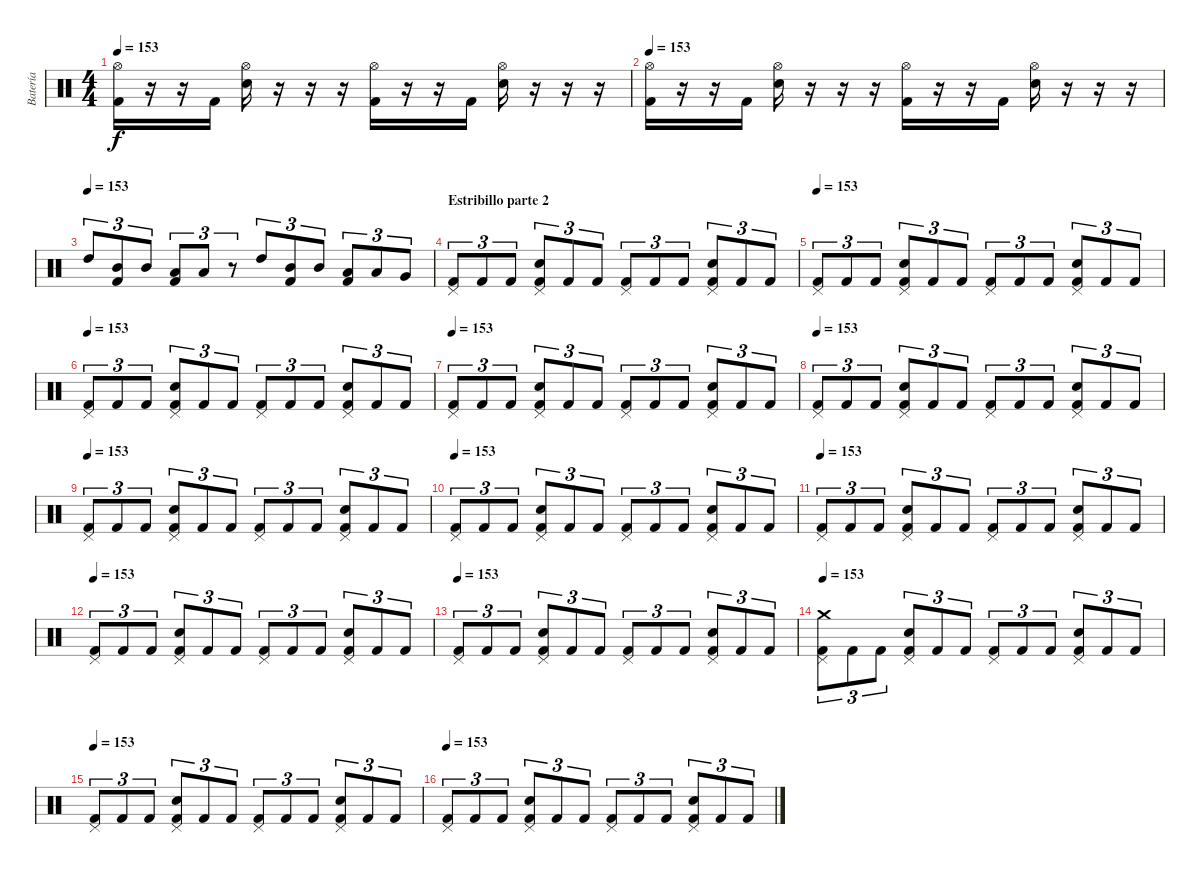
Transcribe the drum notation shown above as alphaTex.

\track ("Batería" "Batería") {instrument percussion}
\staff {score}
\articulation defaults
\ts (4 4)
\tempo 153
\clef neutral
\ks c
("Hi-Hat (open)" "Kick (hit) 2").16{dy f} r.16 r.16 "Kick (hit) 2".16 ("Hi-Hat (open)" "Snare (hit) 2").16 r.16 r.16 r.16 ("Hi-Hat (open)" "Kick (hit) 2").16 r.16 r.16 "Kick (hit) 2".16 ("Hi-Hat (open)" "Snare (hit) 2").16 r.16 r.16 r.16 |
\tempo 153
("Hi-Hat (open)" "Kick (hit) 2").16 r.16 r.16 "Kick (hit) 2".16 ("Hi-Hat (open)" "Snare (hit) 2").16 r.16 r.16 r.16 ("Hi-Hat (open)" "Kick (hit) 2").16 r.16 r.16 "Kick (hit) 2".16 ("Hi-Hat (open)" "Snare (hit) 2").16 r.16 r.16 r.16 |
\tempo (153)
"High Tom (hit)".8{tu (3 2)} ("Mid Tom (hit)" "Kick (hit) 2").8{tu (3 2)} "Mid Tom (hit)".8{tu (3 2)} ("Low Tom (hit)" "Kick (hit) 2").8{tu (3 2)} "Low Tom (hit)".8{tu (3 2)} r.8{tu (3 2)} "High Tom (hit)".8{tu (3 2)} ("Mid Tom (hit)" "Kick (hit) 2").8{tu (3 2)} "Mid Tom (hit)".8{tu (3 2)} ("Low Tom (hit)" "Kick (hit) 2").8{tu (3 2)} "Low Tom (hit)".8{tu (3 2)} "Very Low Tom (hit)".8{tu (3 2)} |
\section ("" "Estribillo parte 2")
("Pedal Hi-Hat (hit)" "Kick (hit) 2").8{tu (3 2)} "Kick (hit) 2".8{tu (3 2)} "Kick (hit) 2".8{tu (3 2)} ("Pedal Hi-Hat (hit)" "Kick (hit) 2" "Snare (hit) 2").8{tu (3 2)} "Kick (hit) 2".8{tu (3 2)} "Kick (hit) 2".8{tu (3 2)} ("Pedal Hi-Hat (hit)" "Kick (hit) 2").8{tu (3 2)} "Kick (hit) 2".8{tu (3 2)} "Kick (hit) 2".8{tu (3 2)} ("Pedal Hi-Hat (hit)" "Kick (hit) 2" "Snare (hit) 2").8{tu (3 2)} "Kick (hit) 2".8{tu (3 2)} "Kick (hit) 2".8{tu (3 2)} |
\tempo 153
("Pedal Hi-Hat (hit)" "Kick (hit) 2").8{tu (3 2)} "Kick (hit) 2".8{tu (3 2)} "Kick (hit) 2".8{tu (3 2)} ("Pedal Hi-Hat (hit)" "Kick (hit) 2" "Snare (hit) 2").8{tu (3 2)} "Kick (hit) 2".8{tu (3 2)} "Kick (hit) 2".8{tu (3 2)} ("Pedal Hi-Hat (hit)" "Kick (hit) 2").8{tu (3 2)} "Kick (hit) 2".8{tu (3 2)} "Kick (hit) 2".8{tu (3 2)} ("Pedal Hi-Hat (hit)" "Kick (hit) 2" "Snare (hit) 2").8{tu (3 2)} "Kick (hit) 2".8{tu (3 2)} "Kick (hit) 2".8{tu (3 2)} |
\tempo 153
("Pedal Hi-Hat (hit)" "Kick (hit) 2").8{tu (3 2)} "Kick (hit) 2".8{tu (3 2)} "Kick (hit) 2".8{tu (3 2)} ("Pedal Hi-Hat (hit)" "Kick (hit) 2" "Snare (hit) 2").8{tu (3 2)} "Kick (hit) 2".8{tu (3 2)} "Kick (hit) 2".8{tu (3 2)} ("Pedal Hi-Hat (hit)" "Kick (hit) 2").8{tu (3 2)} "Kick (hit) 2".8{tu (3 2)} "Kick (hit) 2".8{tu (3 2)} ("Pedal Hi-Hat (hit)" "Kick (hit) 2" "Snare (hit) 2").8{tu (3 2)} "Kick (hit) 2".8{tu (3 2)} "Kick (hit) 2".8{tu (3 2)} |
\tempo 153
("Pedal Hi-Hat (hit)" "Kick (hit) 2").8{tu (3 2)} "Kick (hit) 2".8{tu (3 2)} "Kick (hit) 2".8{tu (3 2)} ("Pedal Hi-Hat (hit)" "Kick (hit) 2" "Snare (hit) 2").8{tu (3 2)} "Kick (hit) 2".8{tu (3 2)} "Kick (hit) 2".8{tu (3 2)} ("Pedal Hi-Hat (hit)" "Kick (hit) 2").8{tu (3 2)} "Kick (hit) 2".8{tu (3 2)} "Kick (hit) 2".8{tu (3 2)} ("Pedal Hi-Hat (hit)" "Kick (hit) 2" "Snare (hit) 2").8{tu (3 2)} "Kick (hit) 2".8{tu (3 2)} "Kick (hit) 2".8{tu (3 2)} |
\tempo 153
("Pedal Hi-Hat (hit)" "Kick (hit) 2").8{tu (3 2)} "Kick (hit) 2".8{tu (3 2)} "Kick (hit) 2".8{tu (3 2)} ("Pedal Hi-Hat (hit)" "Kick (hit) 2" "Snare (hit) 2").8{tu (3 2)} "Kick (hit) 2".8{tu (3 2)} "Kick (hit) 2".8{tu (3 2)} ("Pedal Hi-Hat (hit)" "Kick (hit) 2").8{tu (3 2)} "Kick (hit) 2".8{tu (3 2)} "Kick (hit) 2".8{tu (3 2)} ("Pedal Hi-Hat (hit)" "Kick (hit) 2" "Snare (hit) 2").8{tu (3 2)} "Kick (hit) 2".8{tu (3 2)} "Kick (hit) 2".8{tu (3 2)} |
\tempo 153
("Pedal Hi-Hat (hit)" "Kick (hit) 2").8{tu (3 2)} "Kick (hit) 2".8{tu (3 2)} "Kick (hit) 2".8{tu (3 2)} ("Pedal Hi-Hat (hit)" "Kick (hit) 2" "Snare (hit) 2").8{tu (3 2)} "Kick (hit) 2".8{tu (3 2)} "Kick (hit) 2".8{tu (3 2)} ("Pedal Hi-Hat (hit)" "Kick (hit) 2").8{tu (3 2)} "Kick (hit) 2".8{tu (3 2)} "Kick (hit) 2".8{tu (3 2)} ("Pedal Hi-Hat (hit)" "Kick (hit) 2" "Snare (hit) 2").8{tu (3 2)} "Kick (hit) 2".8{tu (3 2)} "Kick (hit) 2".8{tu (3 2)} |
\tempo 153
("Pedal Hi-Hat (hit)" "Kick (hit) 2").8{tu (3 2)} "Kick (hit) 2".8{tu (3 2)} "Kick (hit) 2".8{tu (3 2)} ("Pedal Hi-Hat (hit)" "Kick (hit) 2" "Snare (hit) 2").8{tu (3 2)} "Kick (hit) 2".8{tu (3 2)} "Kick (hit) 2".8{tu (3 2)} ("Pedal Hi-Hat (hit)" "Kick (hit) 2").8{tu (3 2)} "Kick (hit) 2".8{tu (3 2)} "Kick (hit) 2".8{tu (3 2)} ("Pedal Hi-Hat (hit)" "Kick (hit) 2" "Snare (hit) 2").8{tu (3 2)} "Kick (hit) 2".8{tu (3 2)} "Kick (hit) 2".8{tu (3 2)} |
\tempo 153
("Pedal Hi-Hat (hit)" "Kick (hit) 2").8{tu (3 2)} "Kick (hit) 2".8{tu (3 2)} "Kick (hit) 2".8{tu (3 2)} ("Pedal Hi-Hat (hit)" "Kick (hit) 2" "Snare (hit) 2").8{tu (3 2)} "Kick (hit) 2".8{tu (3 2)} "Kick (hit) 2".8{tu (3 2)} ("Pedal Hi-Hat (hit)" "Kick (hit) 2").8{tu (3 2)} "Kick (hit) 2".8{tu (3 2)} "Kick (hit) 2".8{tu (3 2)} ("Pedal Hi-Hat (hit)" "Kick (hit) 2" "Snare (hit) 2").8{tu (3 2)} "Kick (hit) 2".8{tu (3 2)} "Kick (hit) 2".8{tu (3 2)} |
\tempo 153
("Pedal Hi-Hat (hit)" "Kick (hit) 2").8{tu (3 2)} "Kick (hit) 2".8{tu (3 2)} "Kick (hit) 2".8{tu (3 2)} ("Pedal Hi-Hat (hit)" "Kick (hit) 2" "Snare (hit) 2").8{tu (3 2)} "Kick (hit) 2".8{tu (3 2)} "Kick (hit) 2".8{tu (3 2)} ("Pedal Hi-Hat (hit)" "Kick (hit) 2").8{tu (3 2)} "Kick (hit) 2".8{tu (3 2)} "Kick (hit) 2".8{tu (3 2)} ("Pedal Hi-Hat (hit)" "Kick (hit) 2" "Snare (hit) 2").8{tu (3 2)} "Kick (hit) 2".8{tu (3 2)} "Kick (hit) 2".8{tu (3 2)} |
\tempo 153
("Pedal Hi-Hat (hit)" "Kick (hit) 2").8{tu (3 2)} "Kick (hit) 2".8{tu (3 2)} "Kick (hit) 2".8{tu (3 2)} ("Pedal Hi-Hat (hit)" "Kick (hit) 2" "Snare (hit) 2").8{tu (3 2)} "Kick (hit) 2".8{tu (3 2)} "Kick (hit) 2".8{tu (3 2)} ("Pedal Hi-Hat (hit)" "Kick (hit) 2").8{tu (3 2)} "Kick (hit) 2".8{tu (3 2)} "Kick (hit) 2".8{tu (3 2)} ("Pedal Hi-Hat (hit)" "Kick (hit) 2" "Snare (hit) 2").8{tu (3 2)} "Kick (hit) 2".8{tu (3 2)} "Kick (hit) 2".8{tu (3 2)} |
\tempo 153
("Crash medium (hit)" "Pedal Hi-Hat (hit)" "Kick (hit) 2").8{tu (3 2)} "Kick (hit) 2".8{tu (3 2)} "Kick (hit) 2".8{tu (3 2)} ("Pedal Hi-Hat (hit)" "Kick (hit) 2" "Snare (hit) 2").8{tu (3 2)} "Kick (hit) 2".8{tu (3 2)} "Kick (hit) 2".8{tu (3 2)} ("Pedal Hi-Hat (hit)" "Kick (hit) 2").8{tu (3 2)} "Kick (hit) 2".8{tu (3 2)} "Kick (hit) 2".8{tu (3 2)} ("Pedal Hi-Hat (hit)" "Kick (hit) 2" "Snare (hit) 2").8{tu (3 2)} "Kick (hit) 2".8{tu (3 2)} "Kick (hit) 2".8{tu (3 2)} |
\tempo 153
("Pedal Hi-Hat (hit)" "Kick (hit) 2").8{tu (3 2)} "Kick (hit) 2".8{tu (3 2)} "Kick (hit) 2".8{tu (3 2)} ("Pedal Hi-Hat (hit)" "Kick (hit) 2" "Snare (hit) 2").8{tu (3 2)} "Kick (hit) 2".8{tu (3 2)} "Kick (hit) 2".8{tu (3 2)} ("Pedal Hi-Hat (hit)" "Kick (hit) 2").8{tu (3 2)} "Kick (hit) 2".8{tu (3 2)} "Kick (hit) 2".8{tu (3 2)} ("Pedal Hi-Hat (hit)" "Kick (hit) 2" "Snare (hit) 2").8{tu (3 2)} "Kick (hit) 2".8{tu (3 2)} "Kick (hit) 2".8{tu (3 2)} |
\tempo 153
("Pedal Hi-Hat (hit)" "Kick (hit) 2").8{tu (3 2)} "Kick (hit) 2".8{tu (3 2)} "Kick (hit) 2".8{tu (3 2)} ("Pedal Hi-Hat (hit)" "Kick (hit) 2" "Snare (hit) 2").8{tu (3 2)} "Kick (hit) 2".8{tu (3 2)} "Kick (hit) 2".8{tu (3 2)} ("Pedal Hi-Hat (hit)" "Kick (hit) 2").8{tu (3 2)} "Kick (hit) 2".8{tu (3 2)} "Kick (hit) 2".8{tu (3 2)} ("Pedal Hi-Hat (hit)" "Kick (hit) 2" "Snare (hit) 2").8{tu (3 2)} "Kick (hit) 2".8{tu (3 2)} "Kick (hit) 2".8{tu (3 2)}
